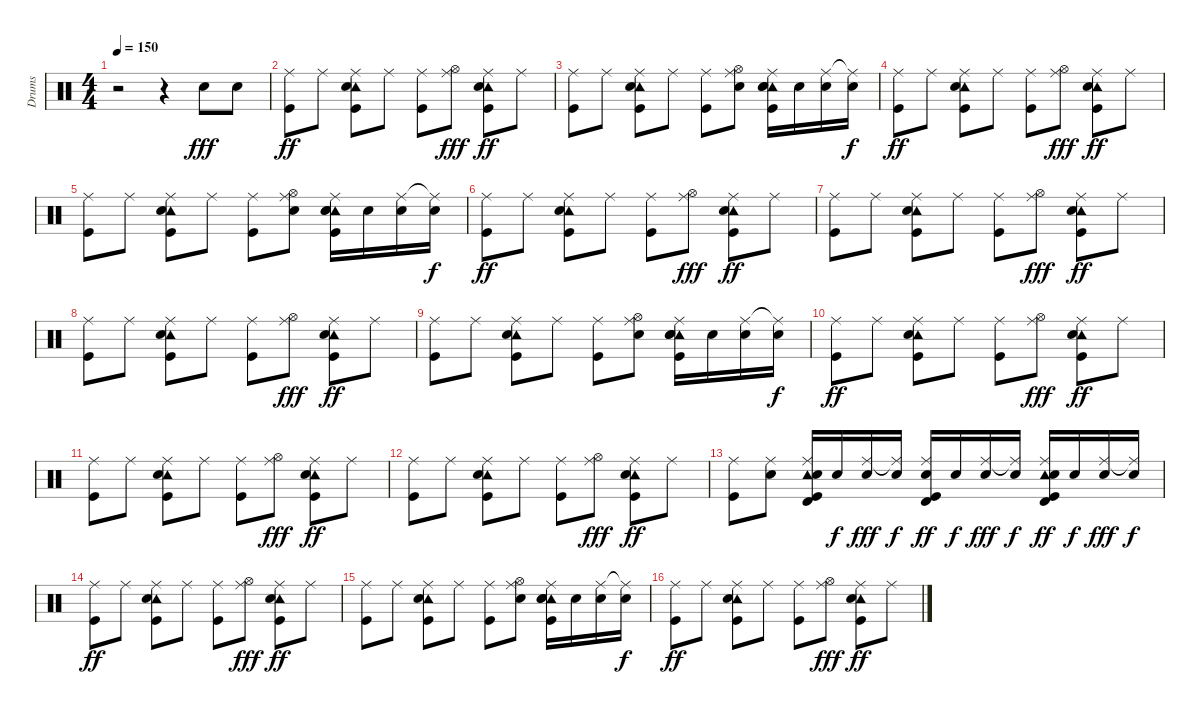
\track ("Drums" "Drums") {instrument percussion}
\staff {score}
\articulation defaults
\ts (4 4)
\tempo 150
\clef neutral
\ks c
r.2{dy p} r.4 "Snare (hit) 2".8{dy fff} "Snare (hit) 2".8 |
("Ride (middle)" "Kick (hit)").8{dy ff} "Ride (middle)".8 ("Ride (middle)" "Tambourine (hit)" "Electric Snare (hit)" "Kick (hit)").8 "Ride (middle)".8 ("Ride (middle)" "Kick (hit)").8 ("Ride (middle)" "Hi-Hat (open)").8{dy fff} ("Ride (middle)" "Tambourine (hit)" "Electric Snare (hit)" "Kick (hit)").8{dy ff} "Ride (middle)".8 |
("Ride (middle)" "Kick (hit)").8 "Ride (middle)".8 ("Ride (middle)" "Tambourine (hit)" "Electric Snare (hit)" "Kick (hit)").8 "Ride (middle)".8 ("Ride (middle)" "Kick (hit)").8 ("Ride (middle)" "Hi-Hat (open)" "Snare (hit) 2").8 ("Ride (middle)" "Tambourine (hit)" "Electric Snare (hit)" "Snare (hit) 2" "Kick (hit)").16 "Snare (hit) 2".16 ("Ride (middle)" "Snare (hit) 2").16 ("Ride (middle)"{t} "Snare (hit) 2").16{dy f} |
("Ride (middle)" "Kick (hit)").8{dy ff} "Ride (middle)".8 ("Ride (middle)" "Tambourine (hit)" "Electric Snare (hit)" "Kick (hit)").8 "Ride (middle)".8 ("Ride (middle)" "Kick (hit)").8 ("Ride (middle)" "Hi-Hat (open)").8{dy fff} ("Ride (middle)" "Tambourine (hit)" "Electric Snare (hit)" "Kick (hit)").8{dy ff} "Ride (middle)".8 |
("Ride (middle)" "Kick (hit)").8 "Ride (middle)".8 ("Ride (middle)" "Tambourine (hit)" "Electric Snare (hit)" "Kick (hit)").8 "Ride (middle)".8 ("Ride (middle)" "Kick (hit)").8 ("Ride (middle)" "Hi-Hat (open)" "Snare (hit) 2").8 ("Ride (middle)" "Tambourine (hit)" "Electric Snare (hit)" "Snare (hit) 2" "Kick (hit)").16 "Snare (hit) 2".16 ("Ride (middle)" "Snare (hit) 2").16 ("Ride (middle)"{t} "Snare (hit) 2").16{dy f} |
("Ride (middle)" "Kick (hit)").8{dy ff} "Ride (middle)".8 ("Ride (middle)" "Tambourine (hit)" "Electric Snare (hit)" "Kick (hit)").8 "Ride (middle)".8 ("Ride (middle)" "Kick (hit)").8 ("Ride (middle)" "Hi-Hat (open)").8{dy fff} ("Ride (middle)" "Tambourine (hit)" "Electric Snare (hit)" "Kick (hit)").8{dy ff} "Ride (middle)".8 |
("Ride (middle)" "Kick (hit)").8 "Ride (middle)".8 ("Ride (middle)" "Tambourine (hit)" "Electric Snare (hit)" "Kick (hit)").8 "Ride (middle)".8 ("Ride (middle)" "Kick (hit)").8 ("Ride (middle)" "Hi-Hat (open)").8{dy fff} ("Ride (middle)" "Tambourine (hit)" "Electric Snare (hit)" "Kick (hit)").8{dy ff} "Ride (middle)".8 |
("Ride (middle)" "Kick (hit)").8 "Ride (middle)".8 ("Ride (middle)" "Tambourine (hit)" "Electric Snare (hit)" "Kick (hit)").8 "Ride (middle)".8 ("Ride (middle)" "Kick (hit)").8 ("Ride (middle)" "Hi-Hat (open)").8{dy fff} ("Ride (middle)" "Tambourine (hit)" "Electric Snare (hit)" "Kick (hit)").8{dy ff} "Ride (middle)".8 |
("Ride (middle)" "Kick (hit)").8 "Ride (middle)".8 ("Ride (middle)" "Tambourine (hit)" "Electric Snare (hit)" "Kick (hit)").8 "Ride (middle)".8 ("Ride (middle)" "Kick (hit)").8 ("Ride (middle)" "Hi-Hat (open)" "Snare (hit) 2").8 ("Ride (middle)" "Tambourine (hit)" "Electric Snare (hit)" "Snare (hit) 2" "Kick (hit)").16 "Snare (hit) 2".16 ("Ride (middle)" "Snare (hit) 2").16 ("Ride (middle)"{t} "Snare (hit) 2").16{dy f} |
("Ride (middle)" "Kick (hit)").8{dy ff} "Ride (middle)".8 ("Ride (middle)" "Tambourine (hit)" "Electric Snare (hit)" "Kick (hit)").8 "Ride (middle)".8 ("Ride (middle)" "Kick (hit)").8 ("Ride (middle)" "Hi-Hat (open)").8{dy fff} ("Ride (middle)" "Tambourine (hit)" "Electric Snare (hit)" "Kick (hit)").8{dy ff} "Ride (middle)".8 |
("Ride (middle)" "Kick (hit)").8 "Ride (middle)".8 ("Ride (middle)" "Tambourine (hit)" "Electric Snare (hit)" "Kick (hit)").8 "Ride (middle)".8 ("Ride (middle)" "Kick (hit)").8 ("Ride (middle)" "Hi-Hat (open)").8{dy fff} ("Ride (middle)" "Tambourine (hit)" "Electric Snare (hit)" "Kick (hit)").8{dy ff} "Ride (middle)".8 |
("Ride (middle)" "Kick (hit)").8 "Ride (middle)".8 ("Ride (middle)" "Tambourine (hit)" "Electric Snare (hit)" "Kick (hit)").8 "Ride (middle)".8 ("Ride (middle)" "Kick (hit)").8 ("Ride (middle)" "Hi-Hat (open)").8{dy fff} ("Ride (middle)" "Tambourine (hit)" "Electric Snare (hit)" "Kick (hit)").8{dy ff} "Ride (middle)".8 |
("Ride (middle)" "Kick (hit)").8 ("Ride (middle)" "Snare (hit) 2").8 ("Timbale high (hit)" "Ride (middle)" "Tambourine (hit)" "Snare (hit) 2" "Kick (hit)").16 "Snare (hit) 2".16{dy f} ("Ride (middle)" "Snare (hit) 2").16{dy fff} ("Ride (middle)"{t} "Snare (hit) 2").16{dy f} ("Timbale high (hit)" "Ride (middle)" "Snare (hit) 2" "Kick (hit)").16{dy ff} "Snare (hit) 2".16{dy f} ("Ride (middle)" "Snare (hit) 2").16{dy fff} ("Ride (middle)"{t} "Snare (hit) 2").16{dy f} ("Timbale high (hit)" "Ride (middle)" "Tambourine (hit)" "Snare (hit) 2" "Kick (hit)").16{dy ff} "Snare (hit) 2".16{dy f} ("Ride (middle)" "Snare (hit) 2").16{dy fff} ("Ride (middle)"{t} "Snare (hit) 2").16{dy f} |
("Ride (middle)" "Kick (hit)").8{dy ff} "Ride (middle)".8 ("Ride (middle)" "Tambourine (hit)" "Electric Snare (hit)" "Kick (hit)").8 "Ride (middle)".8 ("Ride (middle)" "Kick (hit)").8 ("Ride (middle)" "Hi-Hat (open)").8{dy fff} ("Ride (middle)" "Tambourine (hit)" "Electric Snare (hit)" "Kick (hit)").8{dy ff} "Ride (middle)".8 |
("Ride (middle)" "Kick (hit)").8 "Ride (middle)".8 ("Ride (middle)" "Tambourine (hit)" "Electric Snare (hit)" "Kick (hit)").8 "Ride (middle)".8 ("Ride (middle)" "Kick (hit)").8 ("Ride (middle)" "Hi-Hat (open)" "Snare (hit) 2").8 ("Ride (middle)" "Tambourine (hit)" "Electric Snare (hit)" "Snare (hit) 2" "Kick (hit)").16 "Snare (hit) 2".16 ("Ride (middle)" "Snare (hit) 2").16 ("Ride (middle)"{t} "Snare (hit) 2").16{dy f} |
("Ride (middle)" "Kick (hit)").8{dy ff} "Ride (middle)".8 ("Ride (middle)" "Tambourine (hit)" "Electric Snare (hit)" "Kick (hit)").8 "Ride (middle)".8 ("Ride (middle)" "Kick (hit)").8 ("Ride (middle)" "Hi-Hat (open)").8{dy fff} ("Ride (middle)" "Tambourine (hit)" "Electric Snare (hit)" "Kick (hit)").8{dy ff} "Ride (middle)".8
